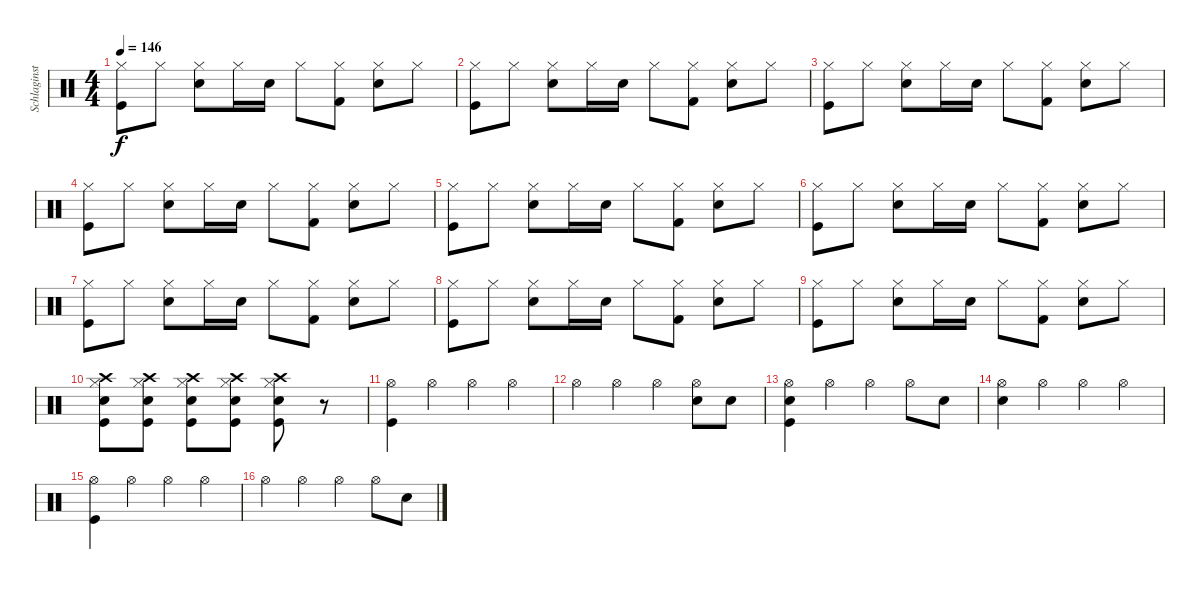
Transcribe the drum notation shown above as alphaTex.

\track ("Schlaginstrumente - Auswahl" "Schlaginst") {instrument percussion}
\staff {score}
\articulation defaults
\ts (4 4)
\tempo 146
\clef neutral
\ks c
("Hi-Hat (closed)" "Kick (hit)").8{dy f} "Hi-Hat (closed)".8 ("Hi-Hat (closed)" "Snare (hit) 2").8 "Hi-Hat (closed)".16 "Snare (hit) 2".16 "Hi-Hat (closed)".8 ("Hi-Hat (closed)" "Kick (hit) 2").8 ("Hi-Hat (closed)" "Snare (hit) 2").8 "Hi-Hat (closed)".8 |
("Hi-Hat (closed)" "Kick (hit)").8 "Hi-Hat (closed)".8 ("Hi-Hat (closed)" "Snare (hit) 2").8 "Hi-Hat (closed)".16 "Snare (hit) 2".16 "Hi-Hat (closed)".8 ("Hi-Hat (closed)" "Kick (hit) 2").8 ("Hi-Hat (closed)" "Snare (hit) 2").8 "Hi-Hat (closed)".8 |
("Hi-Hat (closed)" "Kick (hit)").8 "Hi-Hat (closed)".8 ("Hi-Hat (closed)" "Snare (hit) 2").8 "Hi-Hat (closed)".16 "Snare (hit) 2".16 "Hi-Hat (closed)".8 ("Hi-Hat (closed)" "Kick (hit) 2").8 ("Hi-Hat (closed)" "Snare (hit) 2").8 "Hi-Hat (closed)".8 |
("Hi-Hat (closed)" "Kick (hit)").8 "Hi-Hat (closed)".8 ("Hi-Hat (closed)" "Snare (hit) 2").8 "Hi-Hat (closed)".16 "Snare (hit) 2".16 "Hi-Hat (closed)".8 ("Hi-Hat (closed)" "Kick (hit) 2").8 ("Hi-Hat (closed)" "Snare (hit) 2").8 "Hi-Hat (closed)".8 |
("Hi-Hat (closed)" "Kick (hit)").8 "Hi-Hat (closed)".8 ("Hi-Hat (closed)" "Snare (hit) 2").8 "Hi-Hat (closed)".16 "Snare (hit) 2".16 "Hi-Hat (closed)".8 ("Hi-Hat (closed)" "Kick (hit) 2").8 ("Hi-Hat (closed)" "Snare (hit) 2").8 "Hi-Hat (closed)".8 |
("Hi-Hat (closed)" "Kick (hit)").8 "Hi-Hat (closed)".8 ("Hi-Hat (closed)" "Snare (hit) 2").8 "Hi-Hat (closed)".16 "Snare (hit) 2".16 "Hi-Hat (closed)".8 ("Hi-Hat (closed)" "Kick (hit) 2").8 ("Hi-Hat (closed)" "Snare (hit) 2").8 "Hi-Hat (closed)".8 |
("Hi-Hat (closed)" "Kick (hit)").8 "Hi-Hat (closed)".8 ("Hi-Hat (closed)" "Snare (hit) 2").8 "Hi-Hat (closed)".16 "Snare (hit) 2".16 "Hi-Hat (closed)".8 ("Hi-Hat (closed)" "Kick (hit) 2").8 ("Hi-Hat (closed)" "Snare (hit) 2").8 "Hi-Hat (closed)".8 |
("Hi-Hat (closed)" "Kick (hit)").8 "Hi-Hat (closed)".8 ("Hi-Hat (closed)" "Snare (hit) 2").8 "Hi-Hat (closed)".16 "Snare (hit) 2".16 "Hi-Hat (closed)".8 ("Hi-Hat (closed)" "Kick (hit) 2").8 ("Hi-Hat (closed)" "Snare (hit) 2").8 "Hi-Hat (closed)".8 |
("Hi-Hat (closed)" "Kick (hit)").8 "Hi-Hat (closed)".8 ("Hi-Hat (closed)" "Snare (hit) 2").8 "Hi-Hat (closed)".16 "Snare (hit) 2".16 "Hi-Hat (closed)".8 ("Hi-Hat (closed)" "Kick (hit) 2").8 ("Hi-Hat (closed)" "Snare (hit) 2").8 "Hi-Hat (closed)".8 |
("Crash high (hit)" "Hi-Hat (closed)" "Snare (hit) 2" "Kick (hit)").8 ("Crash high (hit)" "Hi-Hat (closed)" "Snare (hit) 2" "Kick (hit)").8 ("Crash high (hit)" "Hi-Hat (closed)" "Snare (hit) 2" "Kick (hit)").8 ("Crash high (hit)" "Hi-Hat (closed)" "Snare (hit) 2" "Kick (hit)").8 ("Crash high (hit)" "Hi-Hat (closed)" "Snare (hit) 2" "Kick (hit)").8 r.8 |
("Hi-Hat (open)" "Kick (hit)").4 "Hi-Hat (open)".4 "Hi-Hat (open)".4 "Hi-Hat (open)".4 |
"Hi-Hat (open)".4 "Hi-Hat (open)".4 "Hi-Hat (open)".4 ("Snare (hit) 2" "Hi-Hat (open)").8 "Snare (hit) 2".8 |
("Snare (hit) 2" "Hi-Hat (open)" "Kick (hit)").4 "Hi-Hat (open)".4 "Hi-Hat (open)".4 "Hi-Hat (open)".8 "Snare (hit) 2".8 |
("Snare (hit) 2" "Hi-Hat (open)").4 "Hi-Hat (open)".4 "Hi-Hat (open)".4 "Hi-Hat (open)".4 |
("Hi-Hat (open)" "Kick (hit)").4 "Hi-Hat (open)".4 "Hi-Hat (open)".4 "Hi-Hat (open)".4 |
"Hi-Hat (open)".4 "Hi-Hat (open)".4 "Hi-Hat (open)".4 "Hi-Hat (open)".8 "Snare (hit) 2".8
